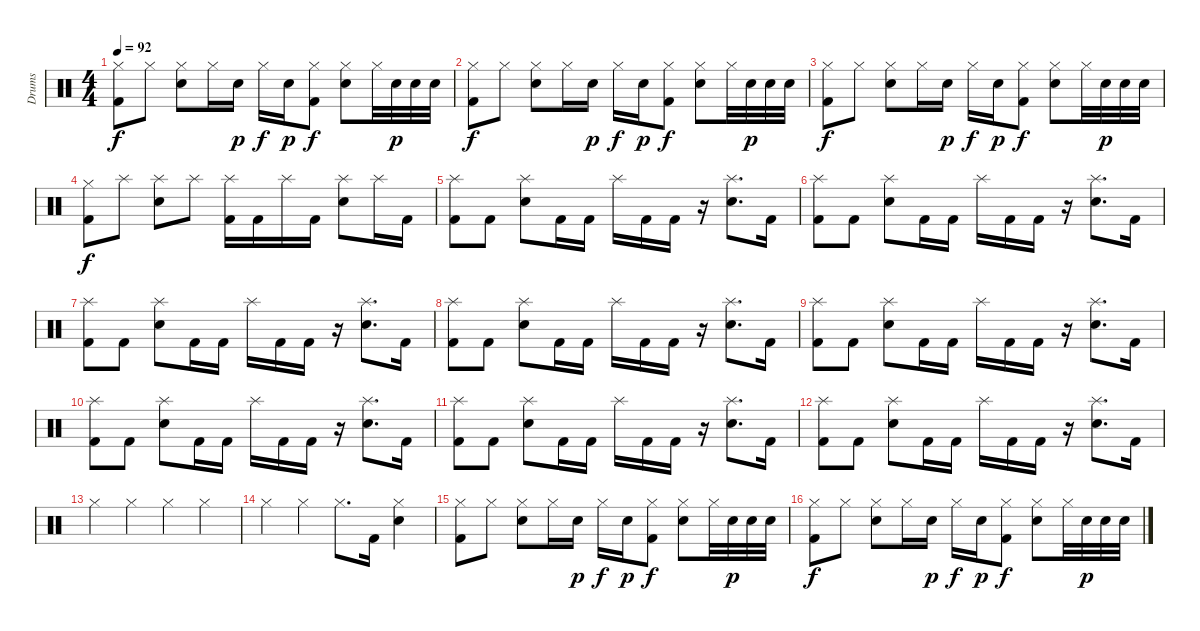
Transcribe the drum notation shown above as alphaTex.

\track ("Drums" "Drums") {instrument percussion}
\staff {score}
\articulation defaults
\ts (4 4)
\tempo 92
\clef neutral
\ks c
("Kick (hit) 2" "Hi-Hat (closed)").8{dy f} "Hi-Hat (closed)".8 ("Electric Snare (hit)" "Hi-Hat (closed)").8 "Hi-Hat (closed)".16 "Electric Snare (hit)".16{dy p} "Hi-Hat (closed)".16{dy f} "Electric Snare (hit)".16{dy p} ("Kick (hit) 2" "Hi-Hat (closed)").8{dy f} ("Electric Snare (hit)" "Hi-Hat (closed)").8 "Hi-Hat (closed)".32 "Electric Snare (hit)".32{dy p} "Electric Snare (hit)".32 "Electric Snare (hit)".32 |
("Kick (hit) 2" "Hi-Hat (closed)").8{dy f} "Hi-Hat (closed)".8 ("Electric Snare (hit)" "Hi-Hat (closed)").8 "Hi-Hat (closed)".16 "Electric Snare (hit)".16{dy p} "Hi-Hat (closed)".16{dy f} "Electric Snare (hit)".16{dy p} ("Kick (hit) 2" "Hi-Hat (closed)").8{dy f} ("Electric Snare (hit)" "Hi-Hat (closed)").8 "Hi-Hat (closed)".32 "Electric Snare (hit)".32{dy p} "Electric Snare (hit)".32 "Electric Snare (hit)".32 |
("Kick (hit) 2" "Hi-Hat (closed)").8{dy f} "Hi-Hat (closed)".8 ("Electric Snare (hit)" "Hi-Hat (closed)").8 "Hi-Hat (closed)".16 "Electric Snare (hit)".16{dy p} "Hi-Hat (closed)".16{dy f} "Electric Snare (hit)".16{dy p} ("Kick (hit) 2" "Hi-Hat (closed)").8{dy f} ("Electric Snare (hit)" "Hi-Hat (closed)").8 "Hi-Hat (closed)".32 "Electric Snare (hit)".32{dy p} "Electric Snare (hit)".32 "Electric Snare (hit)".32 |
("Hi-Hat (closed)" "Kick (hit) 2").8{dy f} "Splash (hit)".8 ("Electric Snare (hit)" "Splash (hit)").8 "Splash (hit)".8 ("Kick (hit) 2" "Splash (hit)").16 "Kick (hit) 2".16 "Splash (hit)".16 "Kick (hit) 2".16 ("Electric Snare (hit)" "Splash (hit)").8 "Splash (hit)".16 "Kick (hit) 2".16 |
("Splash (hit)" "Kick (hit) 2").8 "Kick (hit) 2".8 ("Splash (hit)" "Electric Snare (hit)").8 "Kick (hit) 2".16 "Kick (hit) 2".16 "Splash (hit)".16 "Kick (hit) 2".16 "Kick (hit) 2".16 r.16 ("Splash (hit)" "Electric Snare (hit)").8{d} "Kick (hit) 2".16 |
("Splash (hit)" "Kick (hit) 2").8 "Kick (hit) 2".8 ("Splash (hit)" "Electric Snare (hit)").8 "Kick (hit) 2".16 "Kick (hit) 2".16 "Splash (hit)".16 "Kick (hit) 2".16 "Kick (hit) 2".16 r.16 ("Splash (hit)" "Electric Snare (hit)").8{d} "Kick (hit) 2".16 |
("Splash (hit)" "Kick (hit) 2").8 "Kick (hit) 2".8 ("Splash (hit)" "Electric Snare (hit)").8 "Kick (hit) 2".16 "Kick (hit) 2".16 "Splash (hit)".16 "Kick (hit) 2".16 "Kick (hit) 2".16 r.16 ("Splash (hit)" "Electric Snare (hit)").8{d} "Kick (hit) 2".16 |
("Splash (hit)" "Kick (hit) 2").8 "Kick (hit) 2".8 ("Splash (hit)" "Electric Snare (hit)").8 "Kick (hit) 2".16 "Kick (hit) 2".16 "Splash (hit)".16 "Kick (hit) 2".16 "Kick (hit) 2".16 r.16 ("Splash (hit)" "Electric Snare (hit)").8{d} "Kick (hit) 2".16 |
("Splash (hit)" "Kick (hit) 2").8 "Kick (hit) 2".8 ("Splash (hit)" "Electric Snare (hit)").8 "Kick (hit) 2".16 "Kick (hit) 2".16 "Splash (hit)".16 "Kick (hit) 2".16 "Kick (hit) 2".16 r.16 ("Splash (hit)" "Electric Snare (hit)").8{d} "Kick (hit) 2".16 |
("Splash (hit)" "Kick (hit) 2").8 "Kick (hit) 2".8 ("Splash (hit)" "Electric Snare (hit)").8 "Kick (hit) 2".16 "Kick (hit) 2".16 "Splash (hit)".16 "Kick (hit) 2".16 "Kick (hit) 2".16 r.16 ("Splash (hit)" "Electric Snare (hit)").8{d} "Kick (hit) 2".16 |
("Splash (hit)" "Kick (hit) 2").8 "Kick (hit) 2".8 ("Splash (hit)" "Electric Snare (hit)").8 "Kick (hit) 2".16 "Kick (hit) 2".16 "Splash (hit)".16 "Kick (hit) 2".16 "Kick (hit) 2".16 r.16 ("Splash (hit)" "Electric Snare (hit)").8{d} "Kick (hit) 2".16 |
("Splash (hit)" "Kick (hit) 2").8 "Kick (hit) 2".8 ("Splash (hit)" "Electric Snare (hit)").8 "Kick (hit) 2".16 "Kick (hit) 2".16 "Splash (hit)".16 "Kick (hit) 2".16 "Kick (hit) 2".16 r.16 ("Splash (hit)" "Electric Snare (hit)").8{d} "Kick (hit) 2".16 |
"Hi-Hat (closed)".4 "Hi-Hat (closed)".4 "Hi-Hat (closed)".4 "Hi-Hat (closed)".4 |
"Hi-Hat (closed)".4 "Hi-Hat (closed)".4 "Hi-Hat (closed)".8{d} "Kick (hit) 2".16 ("Electric Snare (hit)" "Hi-Hat (closed)").4 |
("Kick (hit) 2" "Hi-Hat (closed)").8 "Hi-Hat (closed)".8 ("Electric Snare (hit)" "Hi-Hat (closed)").8 "Hi-Hat (closed)".16 "Electric Snare (hit)".16{dy p} "Hi-Hat (closed)".16{dy f} "Electric Snare (hit)".16{dy p} ("Kick (hit) 2" "Hi-Hat (closed)").8{dy f} ("Electric Snare (hit)" "Hi-Hat (closed)").8 "Hi-Hat (closed)".32 "Electric Snare (hit)".32{dy p} "Electric Snare (hit)".32 "Electric Snare (hit)".32 |
("Kick (hit) 2" "Hi-Hat (closed)").8{dy f} "Hi-Hat (closed)".8 ("Electric Snare (hit)" "Hi-Hat (closed)").8 "Hi-Hat (closed)".16 "Electric Snare (hit)".16{dy p} "Hi-Hat (closed)".16{dy f} "Electric Snare (hit)".16{dy p} ("Kick (hit) 2" "Hi-Hat (closed)").8{dy f} ("Electric Snare (hit)" "Hi-Hat (closed)").8 "Hi-Hat (closed)".32 "Electric Snare (hit)".32{dy p} "Electric Snare (hit)".32 "Electric Snare (hit)".32
